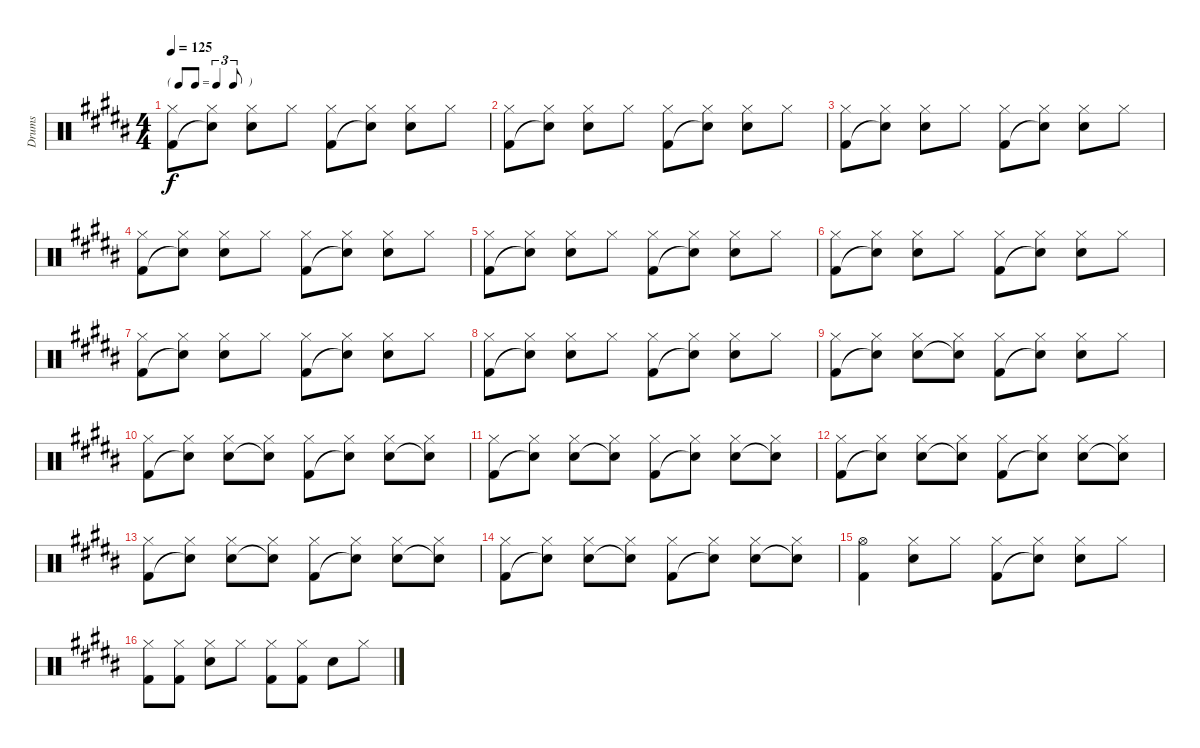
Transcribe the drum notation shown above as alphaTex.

\track ("Drums" "Drums") {instrument percussion}
\staff {score}
\articulation defaults
\ts (4 4)
\tf triplet8th
\tempo 125
\clef neutral
\ks b
("Hi-Hat (closed)" "Kick (hit) 2").8{dy f} ("Hi-Hat (closed)" "Snare (hit)"{t}).8 ("Hi-Hat (closed)" "Snare (hit) 2").8 "Hi-Hat (closed)".8 ("Hi-Hat (closed)" "Kick (hit) 2").8 ("Hi-Hat (closed)" "Snare (hit)"{t}).8 ("Hi-Hat (closed)" "Snare (hit) 2").8 "Hi-Hat (closed)".8 |
("Hi-Hat (closed)" "Kick (hit) 2").8 ("Hi-Hat (closed)" "Snare (hit)"{t}).8 ("Hi-Hat (closed)" "Snare (hit) 2").8 "Hi-Hat (closed)".8 ("Hi-Hat (closed)" "Kick (hit) 2").8 ("Hi-Hat (closed)" "Snare (hit)"{t}).8 ("Hi-Hat (closed)" "Snare (hit) 2").8 "Hi-Hat (closed)".8 |
("Hi-Hat (closed)" "Kick (hit) 2").8 ("Hi-Hat (closed)" "Snare (hit)"{t}).8 ("Hi-Hat (closed)" "Snare (hit) 2").8 "Hi-Hat (closed)".8 ("Hi-Hat (closed)" "Kick (hit) 2").8 ("Hi-Hat (closed)" "Snare (hit)"{t}).8 ("Hi-Hat (closed)" "Snare (hit) 2").8 "Hi-Hat (closed)".8 |
("Hi-Hat (closed)" "Kick (hit) 2").8 ("Hi-Hat (closed)" "Snare (hit)"{t}).8 ("Hi-Hat (closed)" "Snare (hit) 2").8 "Hi-Hat (closed)".8 ("Hi-Hat (closed)" "Kick (hit) 2").8 ("Hi-Hat (closed)" "Snare (hit)"{t}).8 ("Hi-Hat (closed)" "Snare (hit) 2").8 "Hi-Hat (closed)".8 |
("Hi-Hat (closed)" "Kick (hit) 2").8 ("Hi-Hat (closed)" "Snare (hit)"{t}).8 ("Hi-Hat (closed)" "Snare (hit) 2").8 "Hi-Hat (closed)".8 ("Hi-Hat (closed)" "Kick (hit) 2").8 ("Hi-Hat (closed)" "Snare (hit)"{t}).8 ("Hi-Hat (closed)" "Snare (hit) 2").8 "Hi-Hat (closed)".8 |
("Hi-Hat (closed)" "Kick (hit) 2").8 ("Hi-Hat (closed)" "Snare (hit)"{t}).8 ("Hi-Hat (closed)" "Snare (hit) 2").8 "Hi-Hat (closed)".8 ("Hi-Hat (closed)" "Kick (hit) 2").8 ("Hi-Hat (closed)" "Snare (hit)"{t}).8 ("Hi-Hat (closed)" "Snare (hit) 2").8 "Hi-Hat (closed)".8 |
("Hi-Hat (closed)" "Kick (hit) 2").8 ("Hi-Hat (closed)" "Snare (hit)"{t}).8 ("Hi-Hat (closed)" "Snare (hit) 2").8 "Hi-Hat (closed)".8 ("Hi-Hat (closed)" "Kick (hit) 2").8 ("Hi-Hat (closed)" "Snare (hit)"{t}).8 ("Hi-Hat (closed)" "Snare (hit) 2").8 "Hi-Hat (closed)".8 |
("Hi-Hat (closed)" "Kick (hit) 2").8 ("Hi-Hat (closed)" "Snare (hit)"{t}).8 ("Hi-Hat (closed)" "Snare (hit) 2").8 "Hi-Hat (closed)".8 ("Hi-Hat (closed)" "Kick (hit) 2").8 ("Hi-Hat (closed)" "Snare (hit)"{t}).8 ("Hi-Hat (closed)" "Snare (hit) 2").8 "Hi-Hat (closed)".8 |
("Hi-Hat (closed)" "Kick (hit) 2").8 ("Hi-Hat (closed)" "Snare (hit)"{t}).8 ("Hi-Hat (closed)" "Snare (hit) 2").8 ("Hi-Hat (closed)" "Snare (hit)"{t}).8 ("Hi-Hat (closed)" "Kick (hit) 2").8 ("Hi-Hat (closed)" "Snare (hit)"{t}).8 ("Hi-Hat (closed)" "Snare (hit) 2").8 "Hi-Hat (closed)".8 |
("Hi-Hat (closed)" "Kick (hit) 2").8 ("Hi-Hat (closed)" "Snare (hit)"{t}).8 ("Hi-Hat (closed)" "Snare (hit) 2").8 ("Hi-Hat (closed)" "Snare (hit)"{t}).8 ("Hi-Hat (closed)" "Kick (hit) 2").8 ("Hi-Hat (closed)" "Snare (hit)"{t}).8 ("Hi-Hat (closed)" "Snare (hit) 2").8 ("Hi-Hat (closed)" "Snare (hit)"{t}).8 |
("Hi-Hat (closed)" "Kick (hit) 2").8 ("Hi-Hat (closed)" "Snare (hit)"{t}).8 ("Hi-Hat (closed)" "Snare (hit) 2").8 ("Hi-Hat (closed)" "Snare (hit)"{t}).8 ("Hi-Hat (closed)" "Kick (hit) 2").8 ("Hi-Hat (closed)" "Snare (hit)"{t}).8 ("Hi-Hat (closed)" "Snare (hit) 2").8 ("Hi-Hat (closed)" "Snare (hit)"{t}).8 |
("Hi-Hat (closed)" "Kick (hit) 2").8 ("Hi-Hat (closed)" "Snare (hit)"{t}).8 ("Hi-Hat (closed)" "Snare (hit) 2").8 ("Hi-Hat (closed)" "Snare (hit)"{t}).8 ("Hi-Hat (closed)" "Kick (hit) 2").8 ("Hi-Hat (closed)" "Snare (hit)"{t}).8 ("Hi-Hat (closed)" "Snare (hit) 2").8 ("Hi-Hat (closed)" "Snare (hit)"{t}).8 |
("Hi-Hat (closed)" "Kick (hit) 2").8 ("Hi-Hat (closed)" "Snare (hit)"{t}).8 ("Hi-Hat (closed)" "Snare (hit) 2").8 ("Hi-Hat (closed)" "Snare (hit)"{t}).8 ("Hi-Hat (closed)" "Kick (hit) 2").8 ("Hi-Hat (closed)" "Snare (hit)"{t}).8 ("Hi-Hat (closed)" "Snare (hit) 2").8 ("Hi-Hat (closed)" "Snare (hit)"{t}).8 |
("Hi-Hat (closed)" "Kick (hit) 2").8 ("Hi-Hat (closed)" "Snare (hit)"{t}).8 ("Hi-Hat (closed)" "Snare (hit) 2").8 ("Hi-Hat (closed)" "Snare (hit)"{t}).8 ("Hi-Hat (closed)" "Kick (hit) 2").8 ("Hi-Hat (closed)" "Snare (hit)"{t}).8 ("Hi-Hat (closed)" "Snare (hit) 2").8 ("Hi-Hat (closed)" "Snare (hit)"{t}).8 |
("Hi-Hat (open)" "Kick (hit) 2").4 ("Hi-Hat (closed)" "Snare (hit) 2").8 "Hi-Hat (closed)".8 ("Hi-Hat (closed)" "Kick (hit) 2").8 ("Hi-Hat (closed)" "Snare (hit)"{t}).8 ("Hi-Hat (closed)" "Snare (hit) 2").8 "Hi-Hat (closed)".8 |
("Hi-Hat (closed)" "Kick (hit) 2").8 ("Hi-Hat (closed)" "Kick (hit) 2").8 ("Hi-Hat (closed)" "Snare (hit) 2").8 "Hi-Hat (closed)".8 ("Hi-Hat (closed)" "Kick (hit) 2").8 ("Hi-Hat (closed)" "Kick (hit) 2").8 "Snare (hit) 2".8 "Hi-Hat (closed)".8
